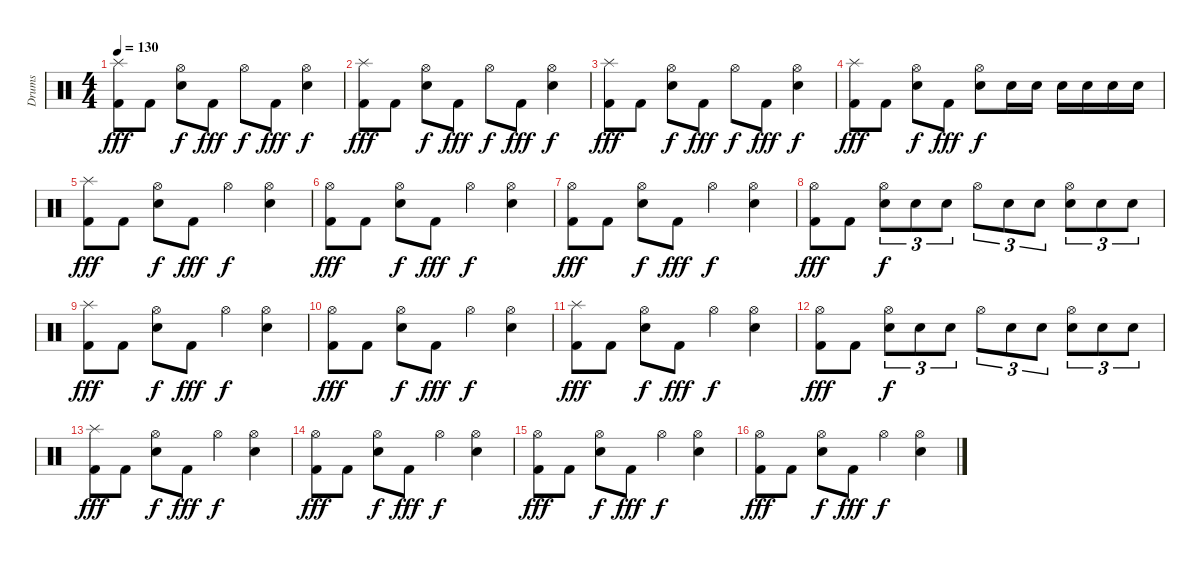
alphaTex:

\track ("Drums" "Drums") {instrument percussion}
\staff {score}
\articulation defaults
\ts (4 4)
\tempo 130
\clef neutral
\ks c
("Splash (hit)" "Kick (hit) 2").8{dy fff} "Kick (hit) 2".8 ("Hi-Hat (open)" "Snare (hit) 2").8{dy f} "Kick (hit) 2".8{dy fff} "Hi-Hat (open)".8{dy f} "Kick (hit) 2".8{dy fff} ("Hi-Hat (open)" "Snare (hit) 2").4{dy f} |
("Splash (hit)" "Kick (hit) 2").8{dy fff} "Kick (hit) 2".8 ("Hi-Hat (open)" "Snare (hit) 2").8{dy f} "Kick (hit) 2".8{dy fff} "Hi-Hat (open)".8{dy f} "Kick (hit) 2".8{dy fff} ("Hi-Hat (open)" "Snare (hit) 2").4{dy f} |
("Splash (hit)" "Kick (hit) 2").8{dy fff} "Kick (hit) 2".8 ("Hi-Hat (open)" "Snare (hit) 2").8{dy f} "Kick (hit) 2".8{dy fff} "Hi-Hat (open)".8{dy f} "Kick (hit) 2".8{dy fff} ("Hi-Hat (open)" "Snare (hit) 2").4{dy f} |
("Splash (hit)" "Kick (hit) 2").8{dy fff} "Kick (hit) 2".8 ("Hi-Hat (open)" "Snare (hit) 2").8{dy f} "Kick (hit) 2".8{dy fff} ("Hi-Hat (open)" "Snare (hit) 2").8{dy f} "Snare (hit) 2".16 "Snare (hit) 2".16 "Snare (hit) 2".16 "Snare (hit) 2".16 "Snare (hit) 2".16 "Snare (hit) 2".16 |
("Splash (hit)" "Kick (hit) 2").8{dy fff} "Kick (hit) 2".8 ("Hi-Hat (open)" "Snare (hit) 2").8{dy f} "Kick (hit) 2".8{dy fff} "Hi-Hat (open)".4{dy f} ("Hi-Hat (open)" "Snare (hit) 2").4 |
("Hi-Hat (open)" "Kick (hit) 2").8{dy fff} "Kick (hit) 2".8 ("Hi-Hat (open)" "Snare (hit) 2").8{dy f} "Kick (hit) 2".8{dy fff} "Hi-Hat (open)".4{dy f} ("Hi-Hat (open)" "Snare (hit) 2").4 |
("Hi-Hat (open)" "Kick (hit) 2").8{dy fff} "Kick (hit) 2".8 ("Hi-Hat (open)" "Snare (hit) 2").8{dy f} "Kick (hit) 2".8{dy fff} "Hi-Hat (open)".4{dy f} ("Hi-Hat (open)" "Snare (hit) 2").4 |
("Hi-Hat (open)" "Kick (hit) 2").8{dy fff} "Kick (hit) 2".8 ("Hi-Hat (open)" "Snare (hit) 2").8{tu (3 2) dy f} "Snare (hit) 2".8{tu (3 2)} "Snare (hit) 2".8{tu (3 2)} "Hi-Hat (open)".8{tu (3 2)} "Snare (hit) 2".8{tu (3 2)} "Snare (hit) 2".8{tu (3 2)} ("Hi-Hat (open)" "Snare (hit) 2").8{tu (3 2)} "Snare (hit) 2".8{tu (3 2)} "Snare (hit) 2".8{tu (3 2)} |
("Splash (hit)" "Kick (hit) 2").8{dy fff} "Kick (hit) 2".8 ("Hi-Hat (open)" "Snare (hit) 2").8{dy f} "Kick (hit) 2".8{dy fff} "Hi-Hat (open)".4{dy f} ("Hi-Hat (open)" "Snare (hit) 2").4 |
("Hi-Hat (open)" "Kick (hit) 2").8{dy fff} "Kick (hit) 2".8 ("Hi-Hat (open)" "Snare (hit) 2").8{dy f} "Kick (hit) 2".8{dy fff} "Hi-Hat (open)".4{dy f} ("Hi-Hat (open)" "Snare (hit) 2").4 |
("Splash (hit)" "Kick (hit) 2").8{dy fff} "Kick (hit) 2".8 ("Hi-Hat (open)" "Snare (hit) 2").8{dy f} "Kick (hit) 2".8{dy fff} "Hi-Hat (open)".4{dy f} ("Hi-Hat (open)" "Snare (hit) 2").4 |
("Hi-Hat (open)" "Kick (hit) 2").8{dy fff} "Kick (hit) 2".8 ("Hi-Hat (open)" "Snare (hit) 2").8{tu (3 2) dy f} "Snare (hit) 2".8{tu (3 2)} "Snare (hit) 2".8{tu (3 2)} "Hi-Hat (open)".8{tu (3 2)} "Snare (hit) 2".8{tu (3 2)} "Snare (hit) 2".8{tu (3 2)} ("Hi-Hat (open)" "Snare (hit) 2").8{tu (3 2)} "Snare (hit) 2".8{tu (3 2)} "Snare (hit) 2".8{tu (3 2)} |
("Splash (hit)" "Kick (hit) 2").8{dy fff} "Kick (hit) 2".8 ("Hi-Hat (open)" "Snare (hit) 2").8{dy f} "Kick (hit) 2".8{dy fff} "Hi-Hat (open)".4{dy f} ("Hi-Hat (open)" "Snare (hit) 2").4 |
("Hi-Hat (open)" "Kick (hit) 2").8{dy fff} "Kick (hit) 2".8 ("Hi-Hat (open)" "Snare (hit) 2").8{dy f} "Kick (hit) 2".8{dy fff} "Hi-Hat (open)".4{dy f} ("Hi-Hat (open)" "Snare (hit) 2").4 |
("Hi-Hat (open)" "Kick (hit) 2").8{dy fff} "Kick (hit) 2".8 ("Hi-Hat (open)" "Snare (hit) 2").8{dy f} "Kick (hit) 2".8{dy fff} "Hi-Hat (open)".4{dy f} ("Hi-Hat (open)" "Snare (hit) 2").4 |
("Hi-Hat (open)" "Kick (hit) 2").8{dy fff} "Kick (hit) 2".8 ("Hi-Hat (open)" "Snare (hit) 2").8{dy f} "Kick (hit) 2".8{dy fff} "Hi-Hat (open)".4{dy f} ("Hi-Hat (open)" "Snare (hit) 2").4
